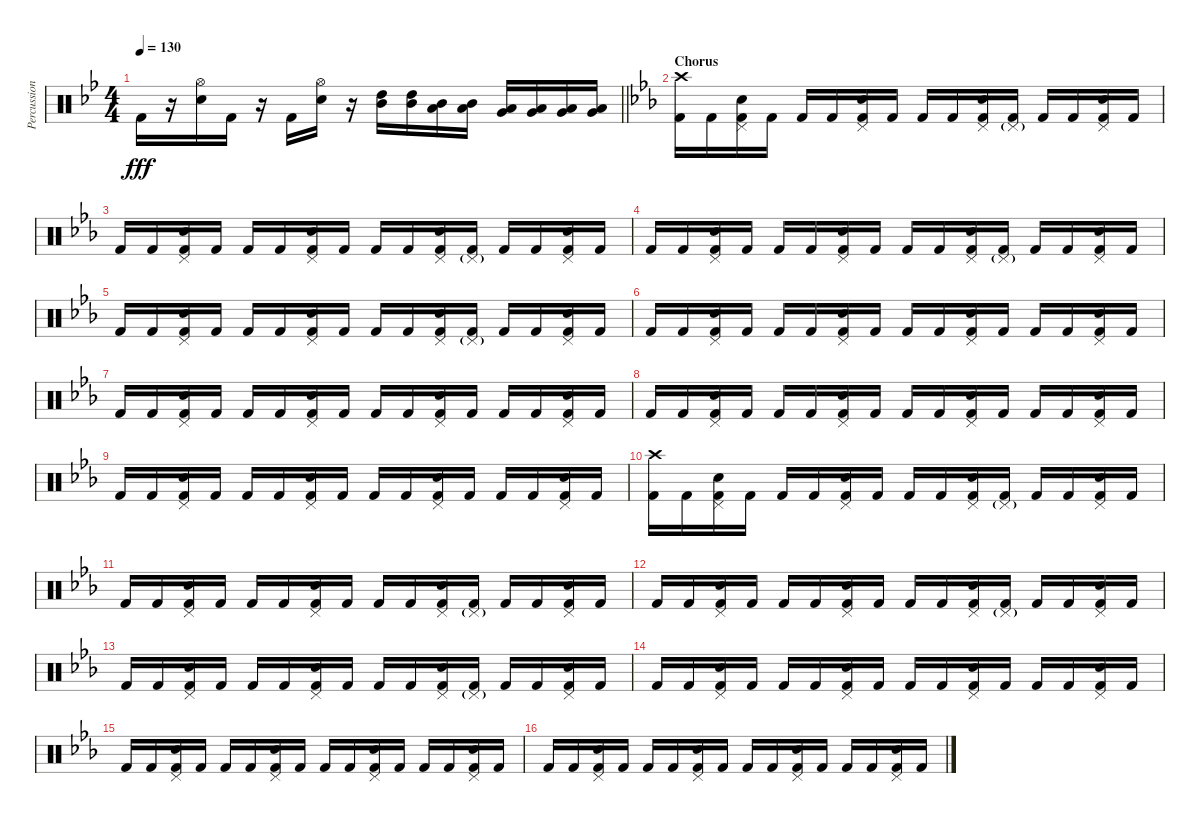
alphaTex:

\track ("Percussion" "Percussion") {instrument percussion}
\staff {score}
\articulation defaults
\ts (4 4)
\tempo 130
\clef neutral
\barLineRight lightlight
\ks gminor "Kick (hit) 2".16{dy fff}
r.16 ("Hi-Hat (open)" "Electric Snare (hit)").16 "Kick (hit) 2".16 r.16 "Kick (hit) 2".16 ("Hi-Hat (open)" "Electric Snare (hit)").16 r.16 ("High Tom (hit)" "Mid Tom (hit)").16 ("High Tom (hit)" "Mid Tom (hit)").16 ("Mid Tom (hit)" "Low Tom (hit)").16 ("Mid Tom (hit)" "Low Tom (hit)").16 ("Low Tom (hit)" "Very Low Tom (hit)").16 ("Low Tom (hit)" "Very Low Tom (hit)").16 ("Very Low Tom (hit)" "Low Floor Tom (hit)").16 ("Very Low Tom (hit)" "Low Floor Tom (hit)").16 |
\section ("" "Chorus")
\ks cminor
("Crash high (hit)" "Kick (hit) 2").16 "Kick (hit) 2".16 ("Pedal Hi-Hat (hit)" "Electric Snare (hit)" "Kick (hit) 2").16 "Kick (hit) 2".16 "Kick (hit) 2".16 "Kick (hit) 2".16 ("Pedal Hi-Hat (hit)" "Electric Snare (hit)" "Kick (hit) 2").16 "Kick (hit) 2".16 "Kick (hit) 2".16 "Kick (hit) 2".16 ("Pedal Hi-Hat (hit)" "Electric Snare (hit)" "Kick (hit) 2").16 ("Pedal Hi-Hat (hit)"{g} "Kick (hit) 2").16 "Kick (hit) 2".16 "Kick (hit) 2".16 ("Pedal Hi-Hat (hit)" "Electric Snare (hit)" "Kick (hit) 2").16 "Kick (hit) 2".16 |
"Kick (hit) 2".16 "Kick (hit) 2".16 ("Pedal Hi-Hat (hit)" "Electric Snare (hit)" "Kick (hit) 2").16 "Kick (hit) 2".16 "Kick (hit) 2".16 "Kick (hit) 2".16 ("Pedal Hi-Hat (hit)" "Electric Snare (hit)" "Kick (hit) 2").16 "Kick (hit) 2".16 "Kick (hit) 2".16 "Kick (hit) 2".16 ("Pedal Hi-Hat (hit)" "Electric Snare (hit)" "Kick (hit) 2").16 ("Pedal Hi-Hat (hit)"{g} "Kick (hit) 2").16 "Kick (hit) 2".16 "Kick (hit) 2".16 ("Pedal Hi-Hat (hit)" "Electric Snare (hit)" "Kick (hit) 2").16 "Kick (hit) 2".16 |
"Kick (hit) 2".16 "Kick (hit) 2".16 ("Pedal Hi-Hat (hit)" "Electric Snare (hit)" "Kick (hit) 2").16 "Kick (hit) 2".16 "Kick (hit) 2".16 "Kick (hit) 2".16 ("Pedal Hi-Hat (hit)" "Electric Snare (hit)" "Kick (hit) 2").16 "Kick (hit) 2".16 "Kick (hit) 2".16 "Kick (hit) 2".16 ("Pedal Hi-Hat (hit)" "Electric Snare (hit)" "Kick (hit) 2").16 ("Pedal Hi-Hat (hit)"{g} "Kick (hit) 2").16 "Kick (hit) 2".16 "Kick (hit) 2".16 ("Pedal Hi-Hat (hit)" "Electric Snare (hit)" "Kick (hit) 2").16 "Kick (hit) 2".16 |
"Kick (hit) 2".16 "Kick (hit) 2".16 ("Pedal Hi-Hat (hit)" "Electric Snare (hit)" "Kick (hit) 2").16 "Kick (hit) 2".16 "Kick (hit) 2".16 "Kick (hit) 2".16 ("Pedal Hi-Hat (hit)" "Electric Snare (hit)" "Kick (hit) 2").16 "Kick (hit) 2".16 "Kick (hit) 2".16 "Kick (hit) 2".16 ("Pedal Hi-Hat (hit)" "Electric Snare (hit)" "Kick (hit) 2").16 ("Pedal Hi-Hat (hit)"{g} "Kick (hit) 2").16 "Kick (hit) 2".16 "Kick (hit) 2".16 ("Pedal Hi-Hat (hit)" "Electric Snare (hit)" "Kick (hit) 2").16 "Kick (hit) 2".16 |
"Kick (hit) 2".16 "Kick (hit) 2".16 ("Pedal Hi-Hat (hit)" "Electric Snare (hit)" "Kick (hit) 2").16 "Kick (hit) 2".16 "Kick (hit) 2".16 "Kick (hit) 2".16 ("Pedal Hi-Hat (hit)" "Electric Snare (hit)" "Kick (hit) 2").16 "Kick (hit) 2".16 "Kick (hit) 2".16 "Kick (hit) 2".16 ("Pedal Hi-Hat (hit)" "Electric Snare (hit)" "Kick (hit) 2").16 "Kick (hit) 2".16 "Kick (hit) 2".16 "Kick (hit) 2".16 ("Pedal Hi-Hat (hit)" "Electric Snare (hit)" "Kick (hit) 2").16 "Kick (hit) 2".16 |
"Kick (hit) 2".16 "Kick (hit) 2".16 ("Pedal Hi-Hat (hit)" "Electric Snare (hit)" "Kick (hit) 2").16 "Kick (hit) 2".16 "Kick (hit) 2".16 "Kick (hit) 2".16 ("Pedal Hi-Hat (hit)" "Electric Snare (hit)" "Kick (hit) 2").16 "Kick (hit) 2".16 "Kick (hit) 2".16 "Kick (hit) 2".16 ("Pedal Hi-Hat (hit)" "Electric Snare (hit)" "Kick (hit) 2").16 "Kick (hit) 2".16 "Kick (hit) 2".16 "Kick (hit) 2".16 ("Pedal Hi-Hat (hit)" "Electric Snare (hit)" "Kick (hit) 2").16 "Kick (hit) 2".16 |
"Kick (hit) 2".16 "Kick (hit) 2".16 ("Pedal Hi-Hat (hit)" "Electric Snare (hit)" "Kick (hit) 2").16 "Kick (hit) 2".16 "Kick (hit) 2".16 "Kick (hit) 2".16 ("Pedal Hi-Hat (hit)" "Electric Snare (hit)" "Kick (hit) 2").16 "Kick (hit) 2".16 "Kick (hit) 2".16 "Kick (hit) 2".16 ("Pedal Hi-Hat (hit)" "Electric Snare (hit)" "Kick (hit) 2").16 "Kick (hit) 2".16 "Kick (hit) 2".16 "Kick (hit) 2".16 ("Pedal Hi-Hat (hit)" "Electric Snare (hit)" "Kick (hit) 2").16 "Kick (hit) 2".16 |
"Kick (hit) 2".16 "Kick (hit) 2".16 ("Pedal Hi-Hat (hit)" "Electric Snare (hit)" "Kick (hit) 2").16 "Kick (hit) 2".16 "Kick (hit) 2".16 "Kick (hit) 2".16 ("Pedal Hi-Hat (hit)" "Electric Snare (hit)" "Kick (hit) 2").16 "Kick (hit) 2".16 "Kick (hit) 2".16 "Kick (hit) 2".16 ("Pedal Hi-Hat (hit)" "Electric Snare (hit)" "Kick (hit) 2").16 "Kick (hit) 2".16 "Kick (hit) 2".16 "Kick (hit) 2".16 ("Pedal Hi-Hat (hit)" "Electric Snare (hit)" "Kick (hit) 2").16 "Kick (hit) 2".16 |
("Crash high (hit)" "Kick (hit) 2").16 "Kick (hit) 2".16 ("Pedal Hi-Hat (hit)" "Electric Snare (hit)" "Kick (hit) 2").16 "Kick (hit) 2".16 "Kick (hit) 2".16 "Kick (hit) 2".16 ("Pedal Hi-Hat (hit)" "Electric Snare (hit)" "Kick (hit) 2").16 "Kick (hit) 2".16 "Kick (hit) 2".16 "Kick (hit) 2".16 ("Pedal Hi-Hat (hit)" "Electric Snare (hit)" "Kick (hit) 2").16 ("Pedal Hi-Hat (hit)"{g} "Kick (hit) 2").16 "Kick (hit) 2".16 "Kick (hit) 2".16 ("Pedal Hi-Hat (hit)" "Electric Snare (hit)" "Kick (hit) 2").16 "Kick (hit) 2".16 |
"Kick (hit) 2".16 "Kick (hit) 2".16 ("Pedal Hi-Hat (hit)" "Electric Snare (hit)" "Kick (hit) 2").16 "Kick (hit) 2".16 "Kick (hit) 2".16 "Kick (hit) 2".16 ("Pedal Hi-Hat (hit)" "Electric Snare (hit)" "Kick (hit) 2").16 "Kick (hit) 2".16 "Kick (hit) 2".16 "Kick (hit) 2".16 ("Pedal Hi-Hat (hit)" "Electric Snare (hit)" "Kick (hit) 2").16 ("Pedal Hi-Hat (hit)"{g} "Kick (hit) 2").16 "Kick (hit) 2".16 "Kick (hit) 2".16 ("Pedal Hi-Hat (hit)" "Electric Snare (hit)" "Kick (hit) 2").16 "Kick (hit) 2".16 |
"Kick (hit) 2".16 "Kick (hit) 2".16 ("Pedal Hi-Hat (hit)" "Electric Snare (hit)" "Kick (hit) 2").16 "Kick (hit) 2".16 "Kick (hit) 2".16 "Kick (hit) 2".16 ("Pedal Hi-Hat (hit)" "Electric Snare (hit)" "Kick (hit) 2").16 "Kick (hit) 2".16 "Kick (hit) 2".16 "Kick (hit) 2".16 ("Pedal Hi-Hat (hit)" "Electric Snare (hit)" "Kick (hit) 2").16 ("Pedal Hi-Hat (hit)"{g} "Kick (hit) 2").16 "Kick (hit) 2".16 "Kick (hit) 2".16 ("Pedal Hi-Hat (hit)" "Electric Snare (hit)" "Kick (hit) 2").16 "Kick (hit) 2".16 |
"Kick (hit) 2".16 "Kick (hit) 2".16 ("Pedal Hi-Hat (hit)" "Electric Snare (hit)" "Kick (hit) 2").16 "Kick (hit) 2".16 "Kick (hit) 2".16 "Kick (hit) 2".16 ("Pedal Hi-Hat (hit)" "Electric Snare (hit)" "Kick (hit) 2").16 "Kick (hit) 2".16 "Kick (hit) 2".16 "Kick (hit) 2".16 ("Pedal Hi-Hat (hit)" "Electric Snare (hit)" "Kick (hit) 2").16 ("Pedal Hi-Hat (hit)"{g} "Kick (hit) 2").16 "Kick (hit) 2".16 "Kick (hit) 2".16 ("Pedal Hi-Hat (hit)" "Electric Snare (hit)" "Kick (hit) 2").16 "Kick (hit) 2".16 |
"Kick (hit) 2".16 "Kick (hit) 2".16 ("Pedal Hi-Hat (hit)" "Electric Snare (hit)" "Kick (hit) 2").16 "Kick (hit) 2".16 "Kick (hit) 2".16 "Kick (hit) 2".16 ("Pedal Hi-Hat (hit)" "Electric Snare (hit)" "Kick (hit) 2").16 "Kick (hit) 2".16 "Kick (hit) 2".16 "Kick (hit) 2".16 ("Pedal Hi-Hat (hit)" "Electric Snare (hit)" "Kick (hit) 2").16 "Kick (hit) 2".16 "Kick (hit) 2".16 "Kick (hit) 2".16 ("Pedal Hi-Hat (hit)" "Electric Snare (hit)" "Kick (hit) 2").16 "Kick (hit) 2".16 |
"Kick (hit) 2".16 "Kick (hit) 2".16 ("Pedal Hi-Hat (hit)" "Electric Snare (hit)" "Kick (hit) 2").16 "Kick (hit) 2".16 "Kick (hit) 2".16 "Kick (hit) 2".16 ("Pedal Hi-Hat (hit)" "Electric Snare (hit)" "Kick (hit) 2").16 "Kick (hit) 2".16 "Kick (hit) 2".16 "Kick (hit) 2".16 ("Pedal Hi-Hat (hit)" "Electric Snare (hit)" "Kick (hit) 2").16 "Kick (hit) 2".16 "Kick (hit) 2".16 "Kick (hit) 2".16 ("Pedal Hi-Hat (hit)" "Electric Snare (hit)" "Kick (hit) 2").16 "Kick (hit) 2".16 |
"Kick (hit) 2".16 "Kick (hit) 2".16 ("Pedal Hi-Hat (hit)" "Electric Snare (hit)" "Kick (hit) 2").16 "Kick (hit) 2".16 "Kick (hit) 2".16 "Kick (hit) 2".16 ("Pedal Hi-Hat (hit)" "Electric Snare (hit)" "Kick (hit) 2").16 "Kick (hit) 2".16 "Kick (hit) 2".16 "Kick (hit) 2".16 ("Pedal Hi-Hat (hit)" "Electric Snare (hit)" "Kick (hit) 2").16 "Kick (hit) 2".16 "Kick (hit) 2".16 "Kick (hit) 2".16 ("Pedal Hi-Hat (hit)" "Electric Snare (hit)" "Kick (hit) 2").16 "Kick (hit) 2".16
